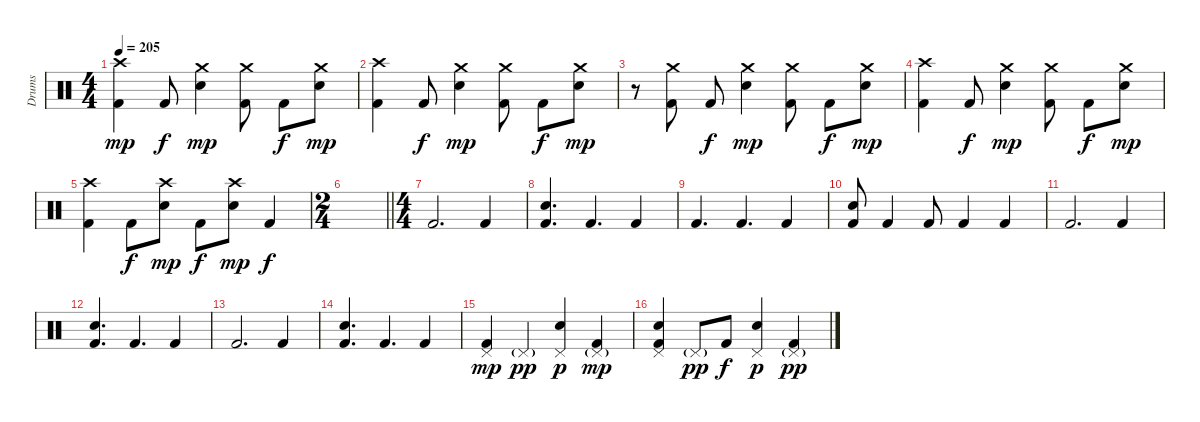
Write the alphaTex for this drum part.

\track ("Drums" "Drums") {instrument percussion}
\staff {score}
\articulation defaults
\ts (4 4)
\tempo 205
\clef neutral
\ks c
("Crash high (hit)" "Kick (hit) 2").4{dy mp} "Kick (hit) 2".8{dy f} ("Crash medium (hit)" "Electric Snare (hit)").4{dy mp} ("Crash medium (hit)" "Kick (hit) 2").8 "Kick (hit) 2".8{dy f} ("Crash medium (hit)" "Electric Snare (hit)").8{dy mp} |
("Crash high (hit)" "Kick (hit) 2").4 "Kick (hit) 2".8{dy f} ("Crash medium (hit)" "Electric Snare (hit)").4{dy mp} ("Crash medium (hit)" "Kick (hit) 2").8 "Kick (hit) 2".8{dy f} ("Crash medium (hit)" "Electric Snare (hit)").8{dy mp} |
r.8 ("Crash medium (hit)" "Kick (hit) 2").8 "Kick (hit) 2".8{dy f} ("Crash medium (hit)" "Electric Snare (hit)").4{dy mp} ("Crash medium (hit)" "Kick (hit) 2").8 "Kick (hit) 2".8{dy f} ("Crash medium (hit)" "Electric Snare (hit)").8{dy mp} |
("Crash high (hit)" "Kick (hit) 2").4 "Kick (hit) 2".8{dy f} ("Crash medium (hit)" "Electric Snare (hit)").4{dy mp} ("Crash medium (hit)" "Kick (hit) 2").8 "Kick (hit) 2".8{dy f} ("Crash medium (hit)" "Electric Snare (hit)").8{dy mp} |
("Crash high (hit)" "Kick (hit) 2").4 "Kick (hit) 2".8{dy f} ("Crash high (hit)" "Electric Snare (hit)").8{dy mp} "Kick (hit) 2".8{dy f} ("Crash high (hit)" "Electric Snare (hit)").8{dy mp} "Kick (hit) 2".4{dy f} |
\ts (2 4)
\barLineRight lightlight
|
\ts (4 4)
"Kick (hit) 2".2{d volume 13} "Kick (hit) 2".4 |
("Electric Snare (hit)" "Kick (hit) 2").4{d} "Kick (hit) 2".4{d} "Kick (hit) 2".4 |
"Kick (hit) 2".4{d} "Kick (hit) 2".4{d} "Kick (hit) 2".4 |
("Electric Snare (hit)" "Kick (hit) 2").8 "Kick (hit) 2".4 "Kick (hit) 2".8 "Kick (hit) 2".4 "Kick (hit) 2".4 |
"Kick (hit) 2".2{d} "Kick (hit) 2".4 |
("Electric Snare (hit)" "Kick (hit) 2").4{d} "Kick (hit) 2".4{d} "Kick (hit) 2".4 |
"Kick (hit) 2".2{d} "Kick (hit) 2".4 |
("Electric Snare (hit)" "Kick (hit) 2").4{d} "Kick (hit) 2".4{d} "Kick (hit) 2".4 |
("Pedal Hi-Hat (hit)" "Kick (hit) 2").4{dy mp} "Pedal Hi-Hat (hit)"{g}.4{dy pp} ("Pedal Hi-Hat (hit)" "Hand Clap (hit)").4{dy p} ("Pedal Hi-Hat (hit)"{g} "Kick (hit) 2").4{dy mp} |
("Pedal Hi-Hat (hit)" "Electric Snare (hit)" "Kick (hit) 2").4 "Pedal Hi-Hat (hit)"{g}.8{dy pp} "Kick (hit) 2".8{dy f} ("Pedal Hi-Hat (hit)" "Hand Clap (hit)").4{dy p} ("Pedal Hi-Hat (hit)"{g} "Kick (hit) 2").4{dy pp}
